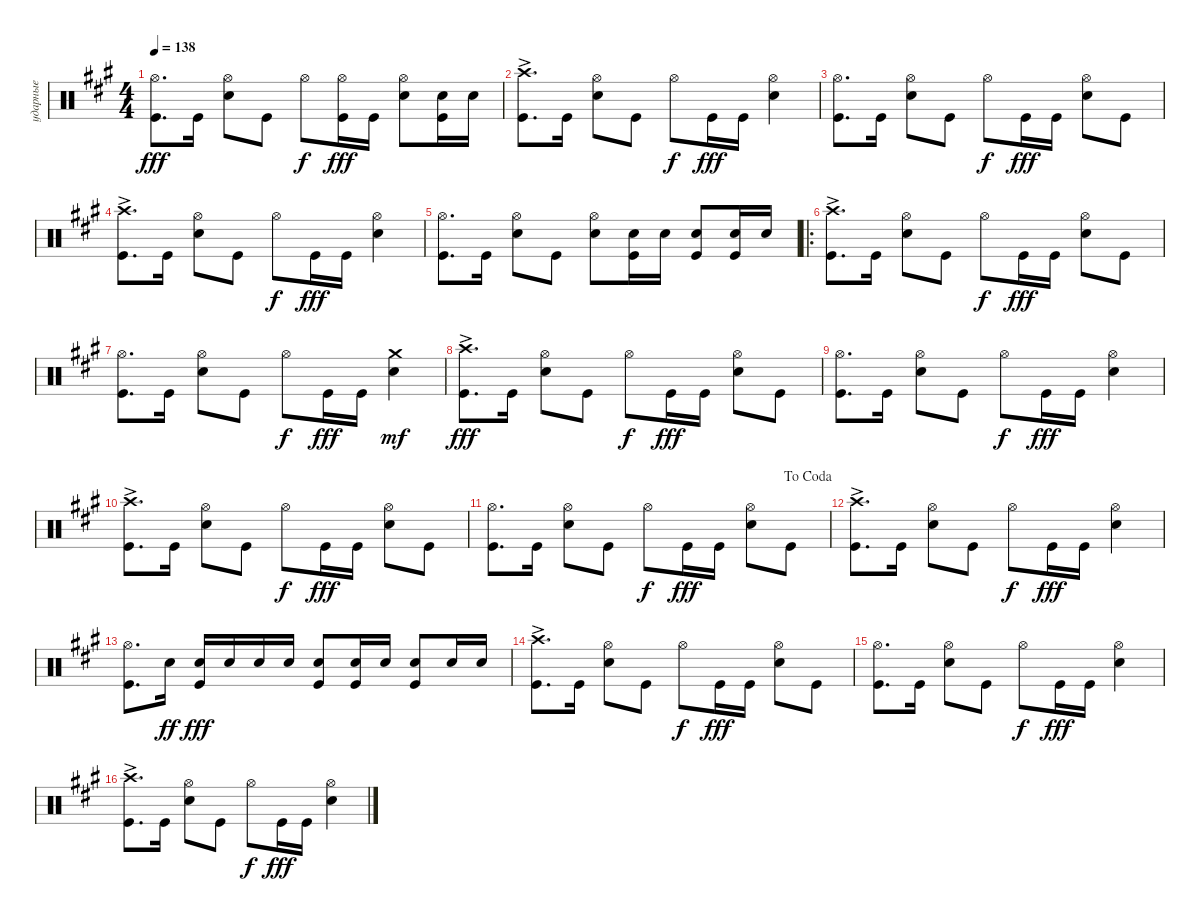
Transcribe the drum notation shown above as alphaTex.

\track ("ударные" "ударные") {instrument percussion}
\staff {score}
\articulation defaults
\ts (4 4)
\tempo 138
\clef neutral
\ks f#minor
("Kick (hit)" "Hi-Hat (open)").8{d dy fff} "Kick (hit)".16 ("Snare (hit) 2" "Hi-Hat (open)").8 "Kick (hit)".8 "Hi-Hat (open)".8{dy f} ("Kick (hit)" "Hi-Hat (open)").16{dy fff} "Kick (hit)".16 ("Snare (hit) 2" "Hi-Hat (open)").8 ("Snare (hit) 2" "Kick (hit)").16 "Snare (hit) 2".16 |
("Kick (hit)" "Crash high (hit)"{ac}).8{d} "Kick (hit)".16 ("Snare (hit) 2" "Hi-Hat (open)").8 "Kick (hit)".8 "Hi-Hat (open)".8{dy f} "Kick (hit)".16{dy fff} "Kick (hit)".16 ("Snare (hit) 2" "Hi-Hat (open)").4 |
("Kick (hit)" "Hi-Hat (open)").8{d} "Kick (hit)".16 ("Snare (hit) 2" "Hi-Hat (open)").8 "Kick (hit)".8 "Hi-Hat (open)".8{dy f} "Kick (hit)".16{dy fff} "Kick (hit)".16 ("Snare (hit) 2" "Hi-Hat (open)").8 "Kick (hit)".8 |
("Kick (hit)" "Crash high (hit)"{ac}).8{d} "Kick (hit)".16 ("Snare (hit) 2" "Hi-Hat (open)").8 "Kick (hit)".8 "Hi-Hat (open)".8{dy f} "Kick (hit)".16{dy fff} "Kick (hit)".16 ("Snare (hit) 2" "Hi-Hat (open)").4 |
("Kick (hit)" "Hi-Hat (open)").8{d} "Kick (hit)".16 ("Snare (hit) 2" "Hi-Hat (open)").8 "Kick (hit)".8 ("Snare (hit) 2" "Hi-Hat (open)").8 ("Snare (hit) 2" "Kick (hit)").16 "Snare (hit) 2".16 ("Snare (hit) 2" "Kick (hit)").8 ("Snare (hit) 2" "Kick (hit)").16 "Snare (hit) 2".16 |
\ro
("Kick (hit)" "Crash high (hit)"{ac}).8{d} "Kick (hit)".16 ("Snare (hit) 2" "Hi-Hat (open)").8 "Kick (hit)".8 "Hi-Hat (open)".8{dy f} "Kick (hit)".16{dy fff} "Kick (hit)".16 ("Snare (hit) 2" "Hi-Hat (open)").8 "Kick (hit)".8 |
("Kick (hit)" "Hi-Hat (open)").8{d} "Kick (hit)".16 ("Snare (hit) 2" "Hi-Hat (open)").8 "Kick (hit)".8 "Hi-Hat (open)".8{dy f} "Kick (hit)".16{dy fff} "Kick (hit)".16 ("Snare (hit) 2" "Crash medium (hit)").4{dy mf} |
("Kick (hit)" "Crash high (hit)"{ac}).8{d dy fff} "Kick (hit)".16 ("Snare (hit) 2" "Hi-Hat (open)").8 "Kick (hit)".8 "Hi-Hat (open)".8{dy f} "Kick (hit)".16{dy fff} "Kick (hit)".16 ("Snare (hit) 2" "Hi-Hat (open)").8 "Kick (hit)".8 |
("Kick (hit)" "Hi-Hat (open)").8{d} "Kick (hit)".16 ("Snare (hit) 2" "Hi-Hat (open)").8 "Kick (hit)".8 "Hi-Hat (open)".8{dy f} "Kick (hit)".16{dy fff} "Kick (hit)".16 ("Snare (hit) 2" "Hi-Hat (open)").4 |
("Kick (hit)" "Crash high (hit)"{ac}).8{d} "Kick (hit)".16 ("Snare (hit) 2" "Hi-Hat (open)").8 "Kick (hit)".8 "Hi-Hat (open)".8{dy f} "Kick (hit)".16{dy fff} "Kick (hit)".16 ("Snare (hit) 2" "Hi-Hat (open)").8 "Kick (hit)".8 |
\jump dacoda
("Kick (hit)" "Hi-Hat (open)").8{d} "Kick (hit)".16 ("Snare (hit) 2" "Hi-Hat (open)").8 "Kick (hit)".8 "Hi-Hat (open)".8{dy f} "Kick (hit)".16{dy fff} "Kick (hit)".16 ("Snare (hit) 2" "Hi-Hat (open)").8 "Kick (hit)".8 |
("Kick (hit)" "Crash high (hit)"{ac}).8{d} "Kick (hit)".16 ("Snare (hit) 2" "Hi-Hat (open)").8 "Kick (hit)".8 "Hi-Hat (open)".8{dy f} "Kick (hit)".16{dy fff} "Kick (hit)".16 ("Snare (hit) 2" "Hi-Hat (open)").4 |
("Kick (hit)" "Hi-Hat (open)").8{d} "Snare (hit) 2".16{dy ff} ("Snare (hit) 2" "Kick (hit)").16{dy fff} "Snare (hit) 2".16 "Snare (hit) 2".16 "Snare (hit) 2".16 ("Snare (hit) 2" "Kick (hit)").8 ("Snare (hit) 2" "Kick (hit)").16 "Snare (hit) 2".16 ("Snare (hit) 2" "Kick (hit)").8 "Snare (hit) 2".16 "Snare (hit) 2".16 |
("Kick (hit)" "Crash high (hit)"{ac}).8{d} "Kick (hit)".16 ("Snare (hit) 2" "Hi-Hat (open)").8 "Kick (hit)".8 "Hi-Hat (open)".8{dy f} "Kick (hit)".16{dy fff} "Kick (hit)".16 ("Snare (hit) 2" "Hi-Hat (open)").8 "Kick (hit)".8 |
("Kick (hit)" "Hi-Hat (open)").8{d} "Kick (hit)".16 ("Snare (hit) 2" "Hi-Hat (open)").8 "Kick (hit)".8 "Hi-Hat (open)".8{dy f} "Kick (hit)".16{dy fff} "Kick (hit)".16 ("Snare (hit) 2" "Hi-Hat (open)").4 |
("Kick (hit)" "Crash high (hit)"{ac}).8{d} "Kick (hit)".16 ("Snare (hit) 2" "Hi-Hat (open)").8 "Kick (hit)".8 "Hi-Hat (open)".8{dy f} "Kick (hit)".16{dy fff} "Kick (hit)".16 ("Snare (hit) 2" "Hi-Hat (open)").4
